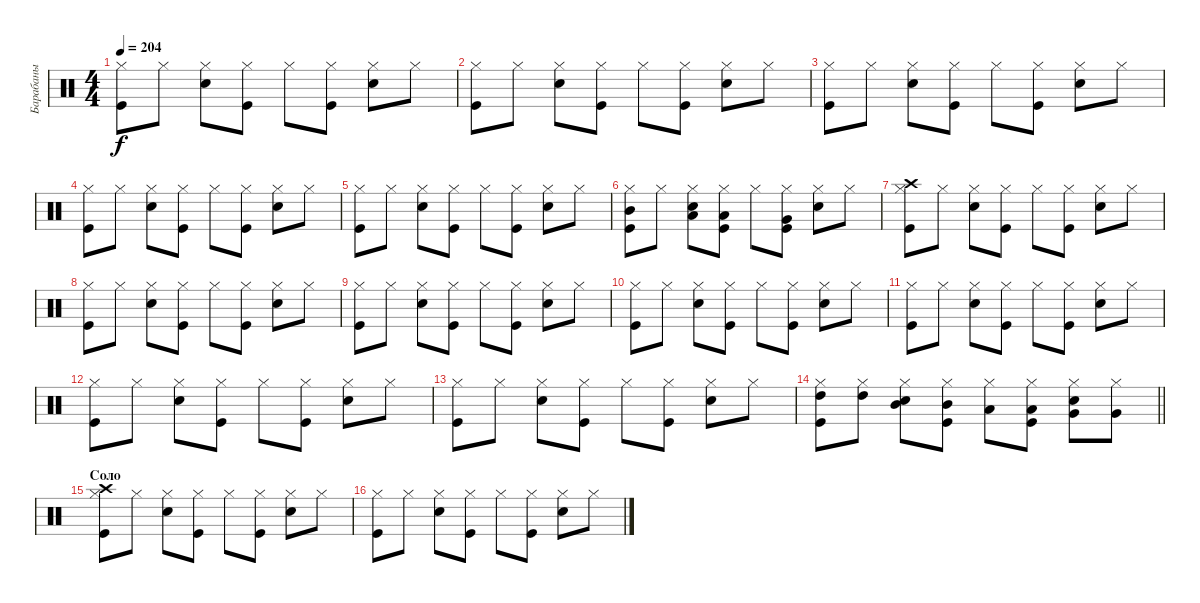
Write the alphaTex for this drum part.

\track ("Барабаны" "Барабаны") {instrument percussion}
\staff {score}
\articulation defaults
\ts (4 4)
\tempo 204
\clef neutral
\ks c
("Kick (hit)" "Hi-Hat (closed)").8{dy f} "Hi-Hat (closed)".8 ("Snare (hit) 2" "Hi-Hat (closed)").8 ("Kick (hit)" "Hi-Hat (closed)").8 "Hi-Hat (closed)".8 ("Kick (hit)" "Hi-Hat (closed)").8 ("Snare (hit) 2" "Hi-Hat (closed)").8 "Hi-Hat (closed)".8 |
("Kick (hit)" "Hi-Hat (closed)").8 "Hi-Hat (closed)".8 ("Snare (hit) 2" "Hi-Hat (closed)").8 ("Kick (hit)" "Hi-Hat (closed)").8 "Hi-Hat (closed)".8 ("Kick (hit)" "Hi-Hat (closed)").8 ("Snare (hit) 2" "Hi-Hat (closed)").8 "Hi-Hat (closed)".8 |
("Kick (hit)" "Hi-Hat (closed)").8 "Hi-Hat (closed)".8 ("Snare (hit) 2" "Hi-Hat (closed)").8 ("Kick (hit)" "Hi-Hat (closed)").8 "Hi-Hat (closed)".8 ("Kick (hit)" "Hi-Hat (closed)").8 ("Snare (hit) 2" "Hi-Hat (closed)").8 "Hi-Hat (closed)".8 |
("Kick (hit)" "Hi-Hat (closed)").8 "Hi-Hat (closed)".8 ("Snare (hit) 2" "Hi-Hat (closed)").8 ("Kick (hit)" "Hi-Hat (closed)").8 "Hi-Hat (closed)".8 ("Kick (hit)" "Hi-Hat (closed)").8 ("Snare (hit) 2" "Hi-Hat (closed)").8 "Hi-Hat (closed)".8 |
("Kick (hit)" "Hi-Hat (closed)").8 "Hi-Hat (closed)".8 ("Snare (hit) 2" "Hi-Hat (closed)").8 ("Kick (hit)" "Hi-Hat (closed)").8 "Hi-Hat (closed)".8 ("Kick (hit)" "Hi-Hat (closed)").8 ("Snare (hit) 2" "Hi-Hat (closed)").8 "Hi-Hat (closed)".8 |
("Kick (hit)" "Hi-Hat (closed)" "Mid Tom (hit)").8 "Hi-Hat (closed)".8 ("Snare (hit) 2" "Hi-Hat (closed)" "Low Tom (hit)").8 ("Kick (hit)" "Hi-Hat (closed)" "Low Tom (hit)").8 "Hi-Hat (closed)".8 ("Kick (hit)" "Hi-Hat (closed)" "Very Low Tom (hit)").8 ("Snare (hit) 2" "Hi-Hat (closed)").8 "Hi-Hat (closed)".8 |
("Kick (hit)" "Hi-Hat (closed)" "Crash high (hit)").8 "Hi-Hat (closed)".8 ("Snare (hit) 2" "Hi-Hat (closed)").8 ("Kick (hit)" "Hi-Hat (closed)").8 "Hi-Hat (closed)".8 ("Kick (hit)" "Hi-Hat (closed)").8 ("Snare (hit) 2" "Hi-Hat (closed)").8 "Hi-Hat (closed)".8 |
("Kick (hit)" "Hi-Hat (closed)").8 "Hi-Hat (closed)".8 ("Snare (hit) 2" "Hi-Hat (closed)").8 ("Kick (hit)" "Hi-Hat (closed)").8 "Hi-Hat (closed)".8 ("Kick (hit)" "Hi-Hat (closed)").8 ("Snare (hit) 2" "Hi-Hat (closed)").8 "Hi-Hat (closed)".8 |
("Kick (hit)" "Hi-Hat (closed)").8 "Hi-Hat (closed)".8 ("Snare (hit) 2" "Hi-Hat (closed)").8 ("Kick (hit)" "Hi-Hat (closed)").8 "Hi-Hat (closed)".8 ("Kick (hit)" "Hi-Hat (closed)").8 ("Snare (hit) 2" "Hi-Hat (closed)").8 "Hi-Hat (closed)".8 |
("Kick (hit)" "Hi-Hat (closed)").8 "Hi-Hat (closed)".8 ("Snare (hit) 2" "Hi-Hat (closed)").8 ("Kick (hit)" "Hi-Hat (closed)").8 "Hi-Hat (closed)".8 ("Kick (hit)" "Hi-Hat (closed)").8 ("Snare (hit) 2" "Hi-Hat (closed)").8 "Hi-Hat (closed)".8 |
("Kick (hit)" "Hi-Hat (closed)").8 "Hi-Hat (closed)".8 ("Snare (hit) 2" "Hi-Hat (closed)").8 ("Kick (hit)" "Hi-Hat (closed)").8 "Hi-Hat (closed)".8 ("Kick (hit)" "Hi-Hat (closed)").8 ("Snare (hit) 2" "Hi-Hat (closed)").8 "Hi-Hat (closed)".8 |
("Kick (hit)" "Hi-Hat (closed)").8 "Hi-Hat (closed)".8 ("Snare (hit) 2" "Hi-Hat (closed)").8 ("Kick (hit)" "Hi-Hat (closed)").8 "Hi-Hat (closed)".8 ("Kick (hit)" "Hi-Hat (closed)").8 ("Snare (hit) 2" "Hi-Hat (closed)").8 "Hi-Hat (closed)".8 |
("Kick (hit)" "Hi-Hat (closed)").8 "Hi-Hat (closed)".8 ("Snare (hit) 2" "Hi-Hat (closed)").8 ("Kick (hit)" "Hi-Hat (closed)").8 "Hi-Hat (closed)".8 ("Kick (hit)" "Hi-Hat (closed)").8 ("Snare (hit) 2" "Hi-Hat (closed)").8 "Hi-Hat (closed)".8 |
\barLineRight lightlight
("Kick (hit)" "Hi-Hat (closed)" "High Tom (hit)").8 ("Hi-Hat (closed)" "High Tom (hit)").8 ("Snare (hit) 2" "Hi-Hat (closed)" "Mid Tom (hit)").8 ("Kick (hit)" "Hi-Hat (closed)" "Mid Tom (hit)").8 ("Hi-Hat (closed)" "Low Tom (hit)").8 ("Kick (hit)" "Hi-Hat (closed)" "Low Tom (hit)").8 ("Snare (hit) 2" "Hi-Hat (closed)" "Very Low Tom (hit)").8 ("Hi-Hat (closed)" "Very Low Tom (hit)").8 |
\section ("" "Соло")
("Kick (hit)" "Hi-Hat (closed)" "Crash high (hit)").8 "Hi-Hat (closed)".8 ("Snare (hit) 2" "Hi-Hat (closed)").8 ("Kick (hit)" "Hi-Hat (closed)").8 "Hi-Hat (closed)".8 ("Kick (hit)" "Hi-Hat (closed)").8 ("Snare (hit) 2" "Hi-Hat (closed)").8 "Hi-Hat (closed)".8 |
("Kick (hit)" "Hi-Hat (closed)").8 "Hi-Hat (closed)".8 ("Snare (hit) 2" "Hi-Hat (closed)").8 ("Kick (hit)" "Hi-Hat (closed)").8 "Hi-Hat (closed)".8 ("Kick (hit)" "Hi-Hat (closed)").8 ("Snare (hit) 2" "Hi-Hat (closed)").8 "Hi-Hat (closed)".8
